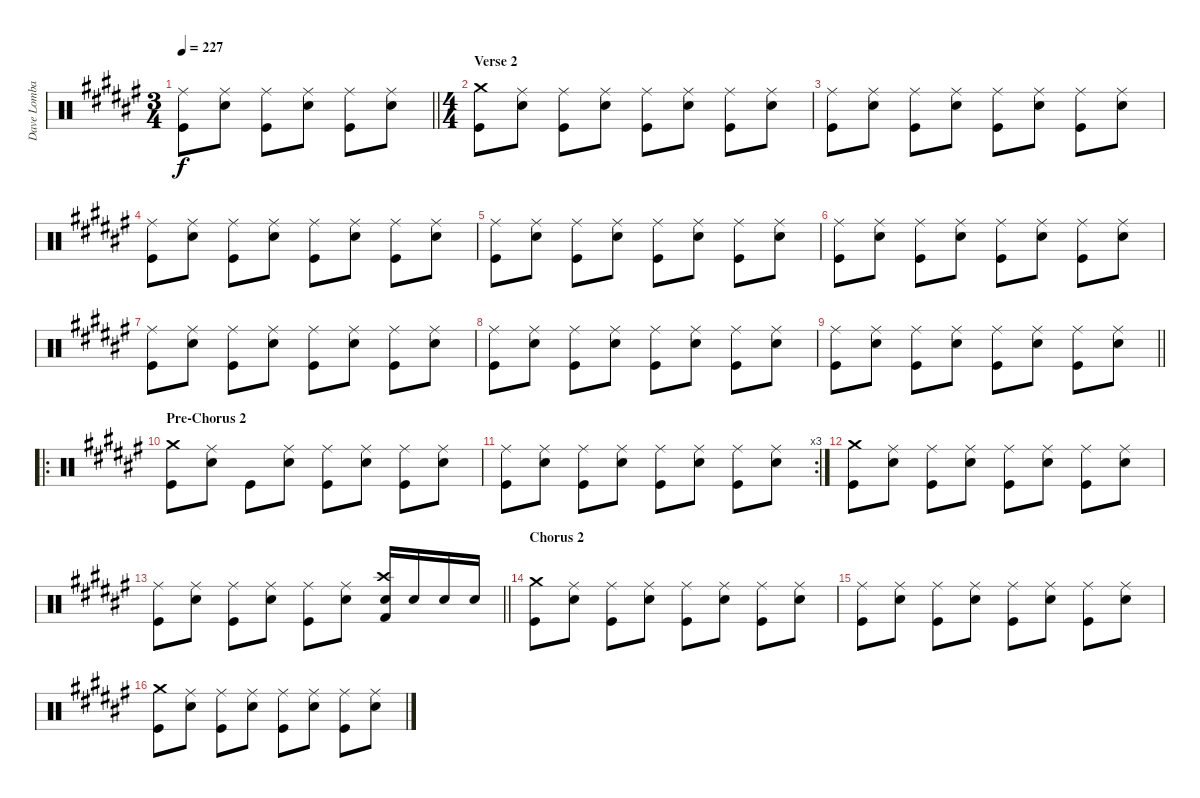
\track ("Dave Lombardo" "Dave Lomba") {instrument percussion}
\staff {score}
\articulation defaults
\ts (3 4)
\tempo 227
\clef neutral
\barLineRight lightlight
\ks f#
("Ride (middle)" "Kick (hit)").8{dy f} ("Ride (middle)" "Snare (hit) 2").8 ("Ride (middle)" "Kick (hit)").8 ("Ride (middle)" "Snare (hit) 2").8 ("Ride (middle)" "Kick (hit)").8 ("Ride (middle)" "Snare (hit) 2").8 |
\ts (4 4)
\section ("" "Verse 2")
("Crash medium (hit)" "Kick (hit)").8 ("Ride (middle)" "Snare (hit) 2").8 ("Ride (middle)" "Kick (hit)").8 ("Ride (middle)" "Snare (hit) 2").8 ("Ride (middle)" "Kick (hit)").8 ("Ride (middle)" "Snare (hit) 2").8 ("Ride (middle)" "Kick (hit)").8 ("Ride (middle)" "Snare (hit) 2").8 |
("Ride (middle)" "Kick (hit)").8 ("Ride (middle)" "Snare (hit) 2").8 ("Ride (middle)" "Kick (hit)").8 ("Ride (middle)" "Snare (hit) 2").8 ("Ride (middle)" "Kick (hit)").8 ("Ride (middle)" "Snare (hit) 2").8 ("Ride (middle)" "Kick (hit)").8 ("Ride (middle)" "Snare (hit) 2").8 |
("Ride (middle)" "Kick (hit)").8 ("Ride (middle)" "Snare (hit) 2").8 ("Ride (middle)" "Kick (hit)").8 ("Ride (middle)" "Snare (hit) 2").8 ("Ride (middle)" "Kick (hit)").8 ("Ride (middle)" "Snare (hit) 2").8 ("Ride (middle)" "Kick (hit)").8 ("Ride (middle)" "Snare (hit) 2").8 |
("Ride (middle)" "Kick (hit)").8 ("Ride (middle)" "Snare (hit) 2").8 ("Ride (middle)" "Kick (hit)").8 ("Ride (middle)" "Snare (hit) 2").8 ("Ride (middle)" "Kick (hit)").8 ("Ride (middle)" "Snare (hit) 2").8 ("Ride (middle)" "Kick (hit)").8 ("Ride (middle)" "Snare (hit) 2").8 |
("Ride (middle)" "Kick (hit)").8 ("Ride (middle)" "Snare (hit) 2").8 ("Ride (middle)" "Kick (hit)").8 ("Ride (middle)" "Snare (hit) 2").8 ("Ride (middle)" "Kick (hit)").8 ("Ride (middle)" "Snare (hit) 2").8 ("Ride (middle)" "Kick (hit)").8 ("Ride (middle)" "Snare (hit) 2").8 |
("Ride (middle)" "Kick (hit)").8 ("Ride (middle)" "Snare (hit) 2").8 ("Ride (middle)" "Kick (hit)").8 ("Ride (middle)" "Snare (hit) 2").8 ("Ride (middle)" "Kick (hit)").8 ("Ride (middle)" "Snare (hit) 2").8 ("Ride (middle)" "Kick (hit)").8 ("Ride (middle)" "Snare (hit) 2").8 |
("Ride (middle)" "Kick (hit)").8 ("Ride (middle)" "Snare (hit) 2").8 ("Ride (middle)" "Kick (hit)").8 ("Ride (middle)" "Snare (hit) 2").8 ("Ride (middle)" "Kick (hit)").8 ("Ride (middle)" "Snare (hit) 2").8 ("Ride (middle)" "Kick (hit)").8 ("Ride (middle)" "Snare (hit) 2").8 |
\barLineRight lightlight
("Ride (middle)" "Kick (hit)").8 ("Ride (middle)" "Snare (hit) 2").8 ("Ride (middle)" "Kick (hit)").8 ("Ride (middle)" "Snare (hit) 2").8 ("Ride (middle)" "Kick (hit)").8 ("Ride (middle)" "Snare (hit) 2").8 ("Ride (middle)" "Kick (hit)").8 ("Ride (middle)" "Snare (hit) 2").8 |
\ro
\section ("" "Pre-Chorus 2")
("Crash medium (hit)" "Kick (hit)").8 ("Ride (middle)" "Snare (hit) 2").8 "Kick (hit)".8 ("Ride (middle)" "Snare (hit) 2").8 ("Ride (middle)" "Kick (hit)").8 ("Ride (middle)" "Snare (hit) 2").8 ("Ride (middle)" "Kick (hit)").8 ("Ride (middle)" "Snare (hit) 2").8 |
\rc 3
("Ride (middle)" "Kick (hit)").8 ("Ride (middle)" "Snare (hit) 2").8 ("Ride (middle)" "Kick (hit)").8 ("Ride (middle)" "Snare (hit) 2").8 ("Ride (middle)" "Kick (hit)").8 ("Ride (middle)" "Snare (hit) 2").8 ("Ride (middle)" "Kick (hit)").8 ("Ride (middle)" "Snare (hit) 2").8 |
("Crash medium (hit)" "Kick (hit)").8 ("Ride (middle)" "Snare (hit) 2").8 ("Ride (middle)" "Kick (hit)").8 ("Ride (middle)" "Snare (hit) 2").8 ("Ride (middle)" "Kick (hit)").8 ("Ride (middle)" "Snare (hit) 2").8 ("Ride (middle)" "Kick (hit)").8 ("Ride (middle)" "Snare (hit) 2").8 |
\barLineRight lightlight
("Ride (middle)" "Kick (hit)").8 ("Ride (middle)" "Snare (hit) 2").8 ("Ride (middle)" "Kick (hit)").8 ("Ride (middle)" "Snare (hit) 2").8 ("Ride (middle)" "Kick (hit)").8 ("Ride (middle)" "Snare (hit) 2").8 ("Crash high (hit)" "Snare (hit) 2" "Kick (hit) 2").16 "Snare (hit) 2".16 "Snare (hit) 2".16 "Snare (hit) 2".16 |
\section ("" "Chorus 2")
("Crash medium (hit)" "Kick (hit)").8 ("Ride (middle)" "Snare (hit) 2").8 ("Ride (middle)" "Kick (hit)").8 ("Ride (middle)" "Snare (hit) 2").8 ("Ride (middle)" "Kick (hit)").8 ("Ride (middle)" "Snare (hit) 2").8 ("Ride (middle)" "Kick (hit)").8 ("Ride (middle)" "Snare (hit) 2").8 |
("Ride (middle)" "Kick (hit)").8 ("Ride (middle)" "Snare (hit) 2").8 ("Ride (middle)" "Kick (hit)").8 ("Ride (middle)" "Snare (hit) 2").8 ("Ride (middle)" "Kick (hit)").8 ("Ride (middle)" "Snare (hit) 2").8 ("Ride (middle)" "Kick (hit)").8 ("Ride (middle)" "Snare (hit) 2").8 |
("Crash medium (hit)" "Kick (hit)").8 ("Ride (middle)" "Snare (hit) 2").8 ("Ride (middle)" "Kick (hit)").8 ("Ride (middle)" "Snare (hit) 2").8 ("Ride (middle)" "Kick (hit)").8 ("Ride (middle)" "Snare (hit) 2").8 ("Ride (middle)" "Kick (hit)").8 ("Ride (middle)" "Snare (hit) 2").8
